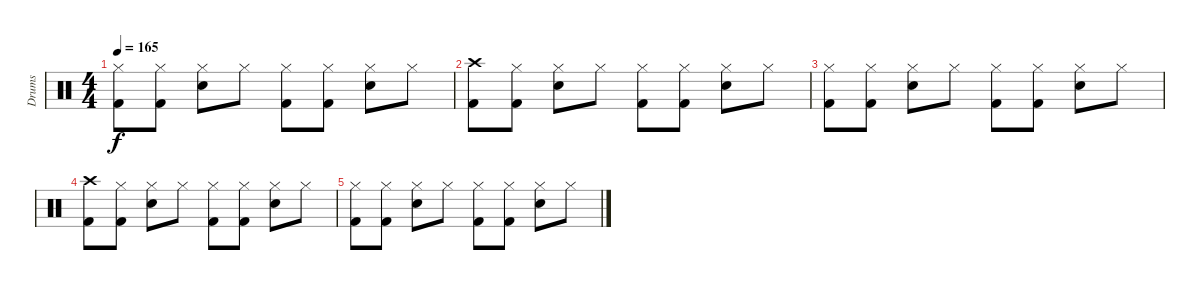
\track ("Drums" "Drums") {instrument percussion}
\staff {score}
\articulation defaults
\ts (4 4)
\tempo 165
\clef neutral
\ks c
("Hi-Hat (closed)" "Kick (hit) 2").8{dy f volume 8} ("Hi-Hat (closed)" "Kick (hit) 2").8 ("Hi-Hat (closed)" "Snare (hit) 2").8 "Hi-Hat (closed)".8 ("Hi-Hat (closed)" "Kick (hit) 2").8 ("Hi-Hat (closed)" "Kick (hit) 2").8 ("Hi-Hat (closed)" "Snare (hit) 2").8 "Hi-Hat (closed)".8 |
("Crash high (hit)" "Kick (hit) 2").8{volume 6} ("Hi-Hat (closed)" "Kick (hit) 2").8 ("Hi-Hat (closed)" "Snare (hit) 2").8 "Hi-Hat (closed)".8 ("Hi-Hat (closed)" "Kick (hit) 2").8 ("Hi-Hat (closed)" "Kick (hit) 2").8 ("Hi-Hat (closed)" "Snare (hit) 2").8 "Hi-Hat (closed)".8 |
("Hi-Hat (closed)" "Kick (hit) 2").8{volume 4} ("Hi-Hat (closed)" "Kick (hit) 2").8 ("Hi-Hat (closed)" "Snare (hit) 2").8 "Hi-Hat (closed)".8 ("Hi-Hat (closed)" "Kick (hit) 2").8 ("Hi-Hat (closed)" "Kick (hit) 2").8 ("Hi-Hat (closed)" "Snare (hit) 2").8 "Hi-Hat (closed)".8 |
("Crash high (hit)" "Kick (hit) 2").8{volume 2} ("Hi-Hat (closed)" "Kick (hit) 2").8 ("Hi-Hat (closed)" "Snare (hit) 2").8 "Hi-Hat (closed)".8 ("Hi-Hat (closed)" "Kick (hit) 2").8 ("Hi-Hat (closed)" "Kick (hit) 2").8 ("Hi-Hat (closed)" "Snare (hit) 2").8 "Hi-Hat (closed)".8 |
("Hi-Hat (closed)" "Kick (hit) 2").8 ("Hi-Hat (closed)" "Kick (hit) 2").8 ("Hi-Hat (closed)" "Snare (hit) 2").8 "Hi-Hat (closed)".8 ("Hi-Hat (closed)" "Kick (hit) 2").8 ("Hi-Hat (closed)" "Kick (hit) 2").8 ("Hi-Hat (closed)" "Snare (hit) 2").8 "Hi-Hat (closed)".8
